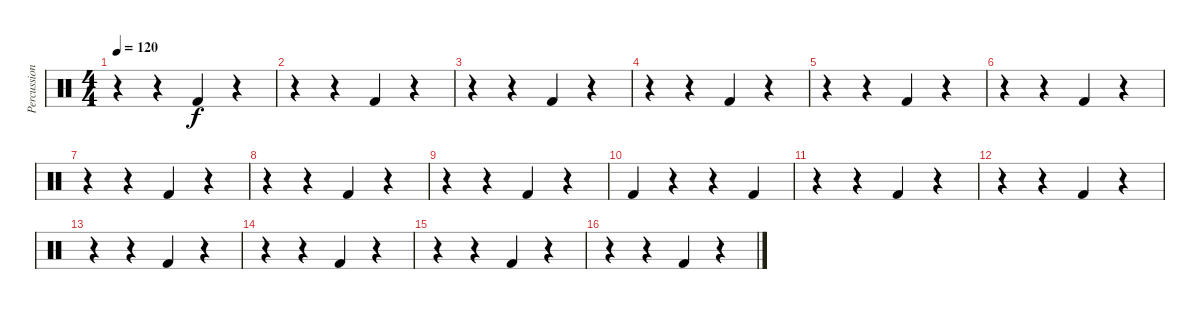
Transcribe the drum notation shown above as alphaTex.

\track ("Percussion II" "Percussion") {instrument percussion}
\staff {score}
\articulation defaults
\ts (4 4)
\tempo 120
\clef neutral
\ks aminor
r.4{dy f} r.4 "Kick (hit) 2".4 r.4 |
r.4 r.4 "Kick (hit) 2".4 r.4 |
r.4 r.4 "Kick (hit) 2".4 r.4 |
r.4 r.4 "Kick (hit) 2".4 r.4 |
r.4 r.4 "Kick (hit) 2".4 r.4 |
r.4 r.4 "Kick (hit) 2".4 r.4 |
r.4 r.4 "Kick (hit) 2".4 r.4 |
r.4 r.4 "Kick (hit) 2".4 r.4 |
r.4 r.4 "Kick (hit) 2".4 r.4 |
"Kick (hit) 2".4 r.4 r.4 "Kick (hit) 2".4 |
r.4 r.4 "Kick (hit) 2".4 r.4 |
r.4 r.4 "Kick (hit) 2".4 r.4 |
r.4 r.4 "Kick (hit) 2".4 r.4 |
r.4 r.4 "Kick (hit) 2".4 r.4 |
r.4 r.4 "Kick (hit) 2".4 r.4 |
r.4 r.4 "Kick (hit) 2".4 r.4
